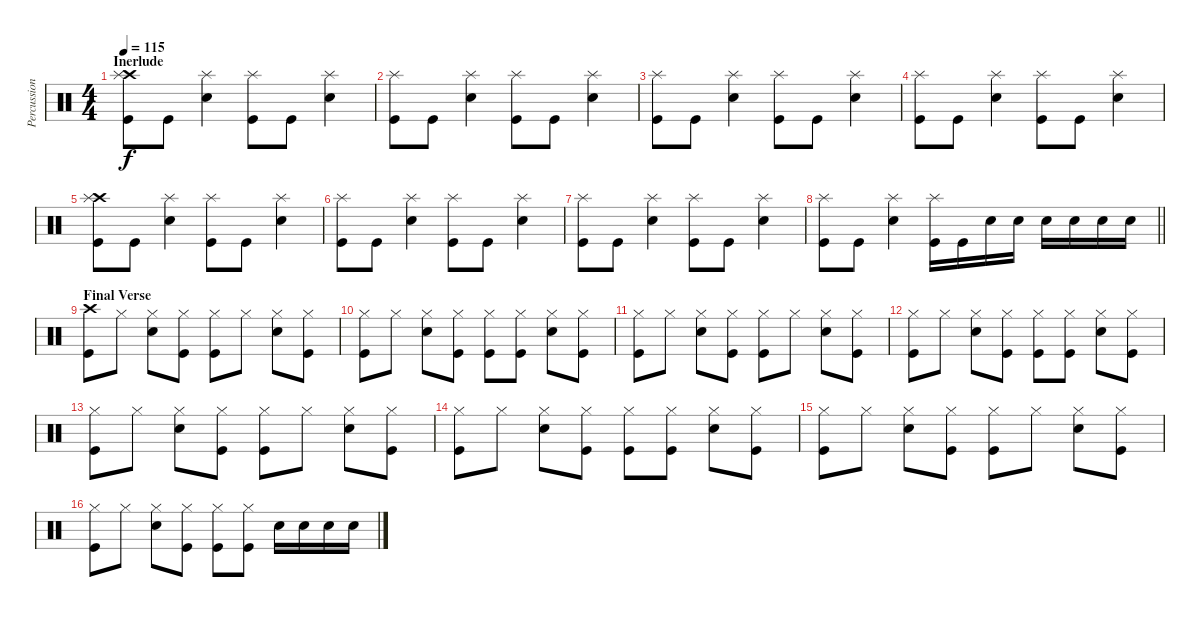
\track ("Percussion" "Percussion") {instrument percussion}
\staff {score}
\articulation defaults
\ts (4 4)
\section ("" "Inerlude")
\tempo 115
\clef neutral
\ks c
("Crash high (hit)" "Splash (hit)" "Kick (hit)").8{dy f} "Kick (hit)".8 ("Splash (hit)" "Electric Snare (hit)").4 ("Splash (hit)" "Kick (hit)").8 "Kick (hit)".8 ("Splash (hit)" "Electric Snare (hit)").4 |
("Splash (hit)" "Kick (hit)").8 "Kick (hit)".8 ("Splash (hit)" "Electric Snare (hit)").4 ("Splash (hit)" "Kick (hit)").8 "Kick (hit)".8 ("Splash (hit)" "Electric Snare (hit)").4 |
("Splash (hit)" "Kick (hit)").8 "Kick (hit)".8 ("Splash (hit)" "Electric Snare (hit)").4 ("Splash (hit)" "Kick (hit)").8 "Kick (hit)".8 ("Splash (hit)" "Electric Snare (hit)").4 |
("Splash (hit)" "Kick (hit)").8 "Kick (hit)".8 ("Splash (hit)" "Electric Snare (hit)").4 ("Splash (hit)" "Kick (hit)").8 "Kick (hit)".8 ("Splash (hit)" "Electric Snare (hit)").4 |
("Crash high (hit)" "Splash (hit)" "Kick (hit)").8 "Kick (hit)".8 ("Splash (hit)" "Electric Snare (hit)").4 ("Splash (hit)" "Kick (hit)").8 "Kick (hit)".8 ("Splash (hit)" "Electric Snare (hit)").4 |
("Splash (hit)" "Kick (hit)").8 "Kick (hit)".8 ("Splash (hit)" "Electric Snare (hit)").4 ("Splash (hit)" "Kick (hit)").8 "Kick (hit)".8 ("Splash (hit)" "Electric Snare (hit)").4 |
("Splash (hit)" "Kick (hit)").8 "Kick (hit)".8 ("Splash (hit)" "Electric Snare (hit)").4 ("Splash (hit)" "Kick (hit)").8 "Kick (hit)".8 ("Splash (hit)" "Electric Snare (hit)").4 |
\barLineRight lightlight
("Splash (hit)" "Kick (hit)").8 "Kick (hit)".8 ("Splash (hit)" "Electric Snare (hit)").4 ("Splash (hit)" "Kick (hit)").16 "Kick (hit)".16 "Electric Snare (hit)".16 "Electric Snare (hit)".16 "Electric Snare (hit)".16 "Electric Snare (hit)".16 "Electric Snare (hit)".16 "Electric Snare (hit)".16 |
\section ("" "Final Verse")
("Crash high (hit)" "Kick (hit)").8 "Hi-Hat (closed)".8 ("Hi-Hat (closed)" "Electric Snare (hit)").8 ("Hi-Hat (closed)" "Kick (hit)").8 ("Hi-Hat (closed)" "Kick (hit)").8 "Hi-Hat (closed)".8 ("Hi-Hat (closed)" "Electric Snare (hit)").8 ("Hi-Hat (closed)" "Kick (hit)").8 |
("Hi-Hat (closed)" "Kick (hit)").8 "Hi-Hat (closed)".8 ("Hi-Hat (closed)" "Electric Snare (hit)").8 ("Hi-Hat (closed)" "Kick (hit)").8 ("Hi-Hat (closed)" "Kick (hit)").8 ("Hi-Hat (closed)" "Kick (hit)").8 ("Hi-Hat (closed)" "Electric Snare (hit)").8 ("Hi-Hat (closed)" "Kick (hit)").8 |
("Hi-Hat (closed)" "Kick (hit)").8 "Hi-Hat (closed)".8 ("Hi-Hat (closed)" "Electric Snare (hit)").8 ("Hi-Hat (closed)" "Kick (hit)").8 ("Hi-Hat (closed)" "Kick (hit)").8 "Hi-Hat (closed)".8 ("Hi-Hat (closed)" "Electric Snare (hit)").8 ("Hi-Hat (closed)" "Kick (hit)").8 |
("Hi-Hat (closed)" "Kick (hit)").8 "Hi-Hat (closed)".8 ("Hi-Hat (closed)" "Electric Snare (hit)").8 ("Hi-Hat (closed)" "Kick (hit)").8 ("Hi-Hat (closed)" "Kick (hit)").8 ("Hi-Hat (closed)" "Kick (hit)").8 ("Hi-Hat (closed)" "Electric Snare (hit)").8 ("Hi-Hat (closed)" "Kick (hit)").8 |
("Hi-Hat (closed)" "Kick (hit)").8 "Hi-Hat (closed)".8 ("Hi-Hat (closed)" "Electric Snare (hit)").8 ("Hi-Hat (closed)" "Kick (hit)").8 ("Hi-Hat (closed)" "Kick (hit)").8 "Hi-Hat (closed)".8 ("Hi-Hat (closed)" "Electric Snare (hit)").8 ("Hi-Hat (closed)" "Kick (hit)").8 |
("Hi-Hat (closed)" "Kick (hit)").8 "Hi-Hat (closed)".8 ("Hi-Hat (closed)" "Electric Snare (hit)").8 ("Hi-Hat (closed)" "Kick (hit)").8 ("Hi-Hat (closed)" "Kick (hit)").8 ("Hi-Hat (closed)" "Kick (hit)").8 ("Hi-Hat (closed)" "Electric Snare (hit)").8 ("Hi-Hat (closed)" "Kick (hit)").8 |
("Hi-Hat (closed)" "Kick (hit)").8 "Hi-Hat (closed)".8 ("Hi-Hat (closed)" "Electric Snare (hit)").8 ("Hi-Hat (closed)" "Kick (hit)").8 ("Hi-Hat (closed)" "Kick (hit)").8 "Hi-Hat (closed)".8 ("Hi-Hat (closed)" "Electric Snare (hit)").8 ("Hi-Hat (closed)" "Kick (hit)").8 |
("Hi-Hat (closed)" "Kick (hit)").8 "Hi-Hat (closed)".8 ("Hi-Hat (closed)" "Electric Snare (hit)").8 ("Hi-Hat (closed)" "Kick (hit)").8 ("Hi-Hat (closed)" "Kick (hit)").8 ("Hi-Hat (closed)" "Kick (hit)").8 "Electric Snare (hit)".16 "Electric Snare (hit)".16 "Electric Snare (hit)".16 "Electric Snare (hit)".16
